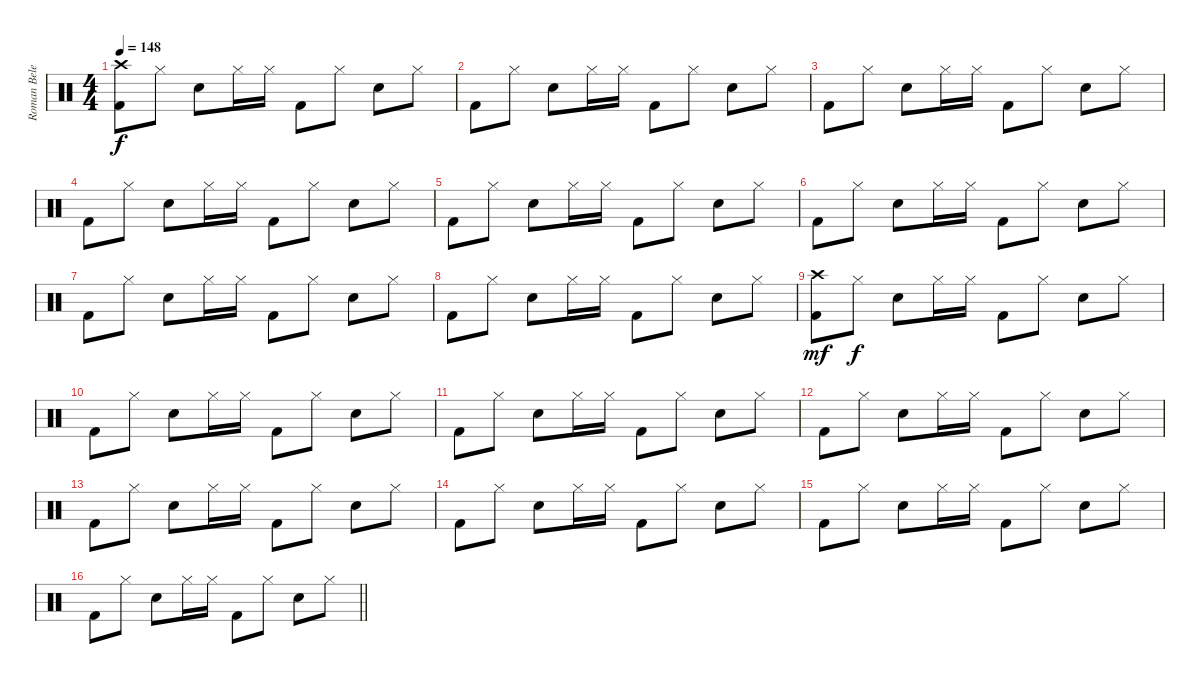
\track ("Roman Belenkiy" "Roman Bele") {instrument percussion}
\staff {score}
\articulation defaults
\ts (4 4)
\section ("" "")
\tempo 148
\clef neutral
\ks c
("Crash high (hit)" "Kick (hit) 2").8{dy f} "Hi-Hat (closed)".8 "Snare (hit) 2".8 "Hi-Hat (closed)".16 "Hi-Hat (closed)".16 "Kick (hit) 2".8 "Hi-Hat (closed)".8 "Snare (hit) 2".8 "Hi-Hat (closed)".8 |
"Kick (hit) 2".8 "Hi-Hat (closed)".8 "Snare (hit) 2".8 "Hi-Hat (closed)".16 "Hi-Hat (closed)".16 "Kick (hit) 2".8 "Hi-Hat (closed)".8 "Snare (hit) 2".8 "Hi-Hat (closed)".8 |
"Kick (hit) 2".8 "Hi-Hat (closed)".8 "Snare (hit) 2".8 "Hi-Hat (closed)".16 "Hi-Hat (closed)".16 "Kick (hit) 2".8 "Hi-Hat (closed)".8 "Snare (hit) 2".8 "Hi-Hat (closed)".8 |
"Kick (hit) 2".8 "Hi-Hat (closed)".8 "Snare (hit) 2".8 "Hi-Hat (closed)".16 "Hi-Hat (closed)".16 "Kick (hit) 2".8 "Hi-Hat (closed)".8 "Snare (hit) 2".8 "Hi-Hat (closed)".8 |
"Kick (hit) 2".8 "Hi-Hat (closed)".8 "Snare (hit) 2".8 "Hi-Hat (closed)".16 "Hi-Hat (closed)".16 "Kick (hit) 2".8 "Hi-Hat (closed)".8 "Snare (hit) 2".8 "Hi-Hat (closed)".8 |
"Kick (hit) 2".8 "Hi-Hat (closed)".8 "Snare (hit) 2".8 "Hi-Hat (closed)".16 "Hi-Hat (closed)".16 "Kick (hit) 2".8 "Hi-Hat (closed)".8 "Snare (hit) 2".8 "Hi-Hat (closed)".8 |
"Kick (hit) 2".8 "Hi-Hat (closed)".8 "Snare (hit) 2".8 "Hi-Hat (closed)".16 "Hi-Hat (closed)".16 "Kick (hit) 2".8 "Hi-Hat (closed)".8 "Snare (hit) 2".8 "Hi-Hat (closed)".8 |
"Kick (hit) 2".8 "Hi-Hat (closed)".8 "Snare (hit) 2".8 "Hi-Hat (closed)".16 "Hi-Hat (closed)".16 "Kick (hit) 2".8 "Hi-Hat (closed)".8 "Snare (hit) 2".8 "Hi-Hat (closed)".8 |
("Crash high (hit)" "Kick (hit) 2").8{dy mf} "Hi-Hat (closed)".8{dy f} "Snare (hit) 2".8 "Hi-Hat (closed)".16 "Hi-Hat (closed)".16 "Kick (hit) 2".8 "Hi-Hat (closed)".8 "Snare (hit) 2".8 "Hi-Hat (closed)".8 |
"Kick (hit) 2".8 "Hi-Hat (closed)".8 "Snare (hit) 2".8 "Hi-Hat (closed)".16 "Hi-Hat (closed)".16 "Kick (hit) 2".8 "Hi-Hat (closed)".8 "Snare (hit) 2".8 "Hi-Hat (closed)".8 |
"Kick (hit) 2".8 "Hi-Hat (closed)".8 "Snare (hit) 2".8 "Hi-Hat (closed)".16 "Hi-Hat (closed)".16 "Kick (hit) 2".8 "Hi-Hat (closed)".8 "Snare (hit) 2".8 "Hi-Hat (closed)".8 |
"Kick (hit) 2".8 "Hi-Hat (closed)".8 "Snare (hit) 2".8 "Hi-Hat (closed)".16 "Hi-Hat (closed)".16 "Kick (hit) 2".8 "Hi-Hat (closed)".8 "Snare (hit) 2".8 "Hi-Hat (closed)".8 |
"Kick (hit) 2".8 "Hi-Hat (closed)".8 "Snare (hit) 2".8 "Hi-Hat (closed)".16 "Hi-Hat (closed)".16 "Kick (hit) 2".8 "Hi-Hat (closed)".8 "Snare (hit) 2".8 "Hi-Hat (closed)".8 |
"Kick (hit) 2".8 "Hi-Hat (closed)".8 "Snare (hit) 2".8 "Hi-Hat (closed)".16 "Hi-Hat (closed)".16 "Kick (hit) 2".8 "Hi-Hat (closed)".8 "Snare (hit) 2".8 "Hi-Hat (closed)".8 |
"Kick (hit) 2".8 "Hi-Hat (closed)".8 "Snare (hit) 2".8 "Hi-Hat (closed)".16 "Hi-Hat (closed)".16 "Kick (hit) 2".8 "Hi-Hat (closed)".8 "Snare (hit) 2".8 "Hi-Hat (closed)".8 |
\barLineRight lightlight "Kick (hit) 2".8 "Hi-Hat (closed)".8 "Snare (hit) 2".8 "Hi-Hat (closed)".16 "Hi-Hat (closed)".16 "Kick (hit) 2".8 "Hi-Hat (closed)".8 "Snare (hit) 2".8 "Hi-Hat (closed)".8
